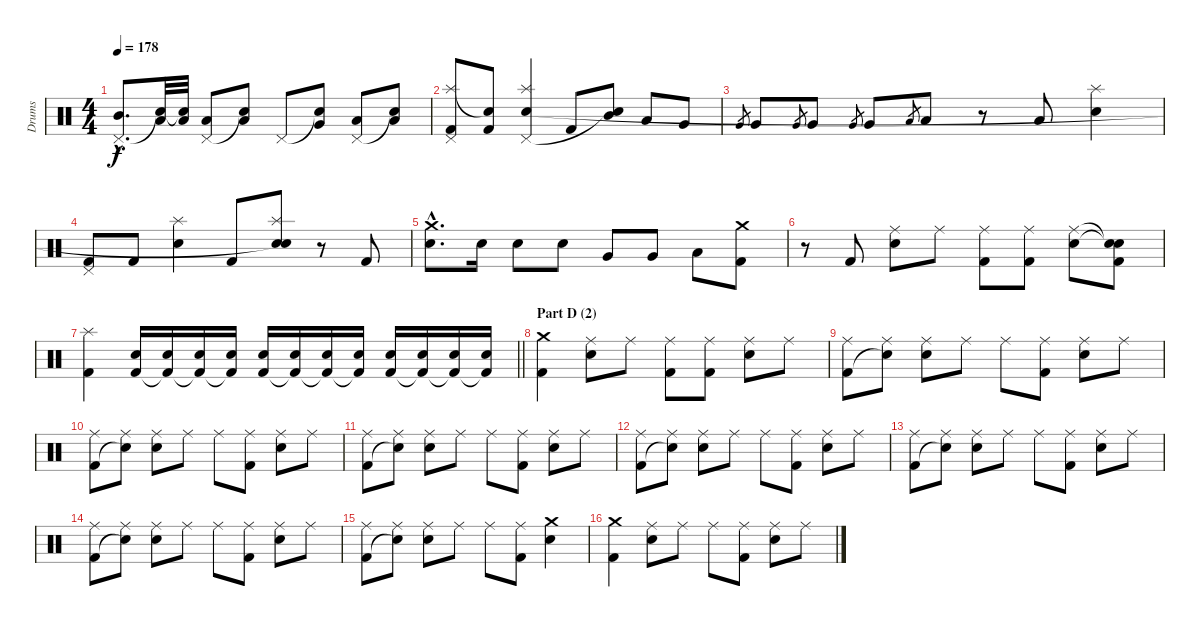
\track ("Drums" "Drums") {instrument percussion}
\staff {score}
\articulation defaults
\ts (4 4)
\tempo 178
\clef neutral
\ks c
("Pedal Hi-Hat (hit)"{hac} "Mid Tom (hit)"{hac}).8{d dy f} ("Snare (hit)"{t} "Low Tom (hit)").32 ("Snare (hit)"{t} "Low Tom (hit)").32 ("Pedal Hi-Hat (hit)" "Low Tom (hit)").8 ("Snare (hit)"{t} "Low Tom (hit)").8 "Pedal Hi-Hat (hit)".8 ("Snare (hit)"{t} "Very Low Tom (hit)").8 ("Pedal Hi-Hat (hit)" "Low Floor Tom (hit)").8 ("Snare (hit)"{t} "Low Floor Tom (hit)").8 |
("Splash (hit)" "Pedal Hi-Hat (hit)" "Kick (hit) 2").8 ("Snare (hit)"{t} "Kick (hit) 2").8 ("Splash (hit)" "Pedal Hi-Hat (hit)" "Electric Snare (hit)").4 "Kick (hit) 2".8 ("Mid Tom (hit)" "Snare (hit)"{t}).8 "Low Tom (hit)".8 "Very Low Tom (hit)".8 |
"Very Low Tom (hit)".8{gr} "Very Low Tom (hit)".8 "Very Low Tom (hit)".8{gr} "Very Low Tom (hit)".8 "Very Low Tom (hit)".8{gr} "Very Low Tom (hit)".8 "Low Floor Tom (hit)".8{gr} "Low Floor Tom (hit)".8 r.8 "Low Floor Tom (hit)".8 ("Splash (hit)" "Electric Snare (hit)").4 |
("Pedal Hi-Hat (hit)" "Kick (hit) 2").8 "Kick (hit) 2".8 ("Splash (hit)" "Electric Snare (hit)").4 "Kick (hit) 2".8 ("Splash (hit)" "Electric Snare (hit)" "Snare (hit)"{t}).8 r.8 "Kick (hit) 2".8 |
("Crash medium (hit)"{hac} "Electric Snare (hit)"{hac}).8{d} "Electric Snare (hit)".16 "Electric Snare (hit)".8 "Electric Snare (hit)".8 "Very Low Tom (hit)".8 "Very Low Tom (hit)".8 "Low Floor Tom (hit)".8 ("Crash medium (hit)" "Kick (hit) 2").8 |
r.8 "Kick (hit) 2".8 ("Ride (middle)" "Electric Snare (hit)").8 "Ride (middle)".8 ("Ride (middle)" "Kick (hit) 2").8 ("Ride (middle)" "Kick (hit) 2").8 ("Ride (middle)" "Electric Snare (hit)").8 ("Snare (hit)"{t} "Snare (hit)"{t} "Kick (hit) 2").8 |
\barLineRight lightlight
("Splash (hit)" "Kick (hit) 2").4 ("Electric Snare (hit)" "Kick (hit) 2").16 ("Electric Snare (hit)" "Kick (hit) 2"{t}).16 ("Electric Snare (hit)" "Kick (hit) 2"{t}).16 ("Electric Snare (hit)" "Kick (hit) 2"{t}).16 ("Electric Snare (hit)" "Kick (hit) 2").16 ("Electric Snare (hit)" "Kick (hit) 2"{t}).16 ("Electric Snare (hit)" "Kick (hit) 2"{t}).16 ("Electric Snare (hit)" "Kick (hit) 2"{t}).16 ("Electric Snare (hit)" "Kick (hit) 2").16 ("Electric Snare (hit)" "Kick (hit) 2"{t}).16 ("Electric Snare (hit)" "Kick (hit) 2"{t}).16 ("Electric Snare (hit)" "Kick (hit) 2"{t}).16 |
\section ("" "Part D (2)")
("Crash medium (hit)" "Kick (hit) 2").4 ("Ride (middle)" "Electric Snare (hit)").8 "Ride (middle)".8 ("Ride (middle)" "Kick (hit) 2").8 ("Ride (middle)" "Kick (hit) 2").8 ("Ride (middle)" "Electric Snare (hit)").8 "Ride (middle)".8 |
("Ride (middle)" "Kick (hit) 2").8 ("Ride (middle)" "Snare (hit)"{t}).8 ("Ride (middle)" "Electric Snare (hit)").8 "Ride (middle)".8 "Ride (middle)".8 ("Ride (middle)" "Kick (hit) 2").8 ("Ride (middle)" "Electric Snare (hit)").8 "Ride (middle)".8 |
("Ride (middle)" "Kick (hit) 2").8 ("Ride (middle)" "Snare (hit)"{t}).8 ("Ride (middle)" "Electric Snare (hit)").8 "Ride (middle)".8 "Ride (middle)".8 ("Ride (middle)" "Kick (hit) 2").8 ("Ride (middle)" "Electric Snare (hit)").8 "Ride (middle)".8 |
("Ride (middle)" "Kick (hit) 2").8 ("Ride (middle)" "Snare (hit)"{t}).8 ("Ride (middle)" "Electric Snare (hit)").8 "Ride (middle)".8 "Ride (middle)".8 ("Ride (middle)" "Kick (hit) 2").8 ("Ride (middle)" "Electric Snare (hit)").8 "Ride (middle)".8 |
("Ride (middle)" "Kick (hit) 2").8 ("Ride (middle)" "Snare (hit)"{t}).8 ("Ride (middle)" "Electric Snare (hit)").8 "Ride (middle)".8 "Ride (middle)".8 ("Ride (middle)" "Kick (hit) 2").8 ("Ride (middle)" "Electric Snare (hit)").8 "Ride (middle)".8 |
("Ride (middle)" "Kick (hit) 2").8 ("Ride (middle)" "Snare (hit)"{t}).8 ("Ride (middle)" "Electric Snare (hit)").8 "Ride (middle)".8 "Ride (middle)".8 ("Ride (middle)" "Kick (hit) 2").8 ("Ride (middle)" "Electric Snare (hit)").8 "Ride (middle)".8 |
("Ride (middle)" "Kick (hit) 2").8 ("Ride (middle)" "Snare (hit)"{t}).8 ("Ride (middle)" "Electric Snare (hit)").8 "Ride (middle)".8 "Ride (middle)".8 ("Ride (middle)" "Kick (hit) 2").8 ("Ride (middle)" "Electric Snare (hit)").8 "Ride (middle)".8 |
("Ride (middle)" "Kick (hit) 2").8 ("Ride (middle)" "Snare (hit)"{t}).8 ("Ride (middle)" "Electric Snare (hit)").8 "Ride (middle)".8 "Ride (middle)".8 ("Ride (middle)" "Kick (hit) 2").8 ("Crash medium (hit)" "Electric Snare (hit)").4 |
("Crash medium (hit)" "Kick (hit) 2").4 ("Ride (middle)" "Electric Snare (hit)").8 "Ride (middle)".8 "Ride (middle)".8 ("Ride (middle)" "Kick (hit) 2").8 ("Ride (middle)" "Electric Snare (hit)").8 "Ride (middle)".8
